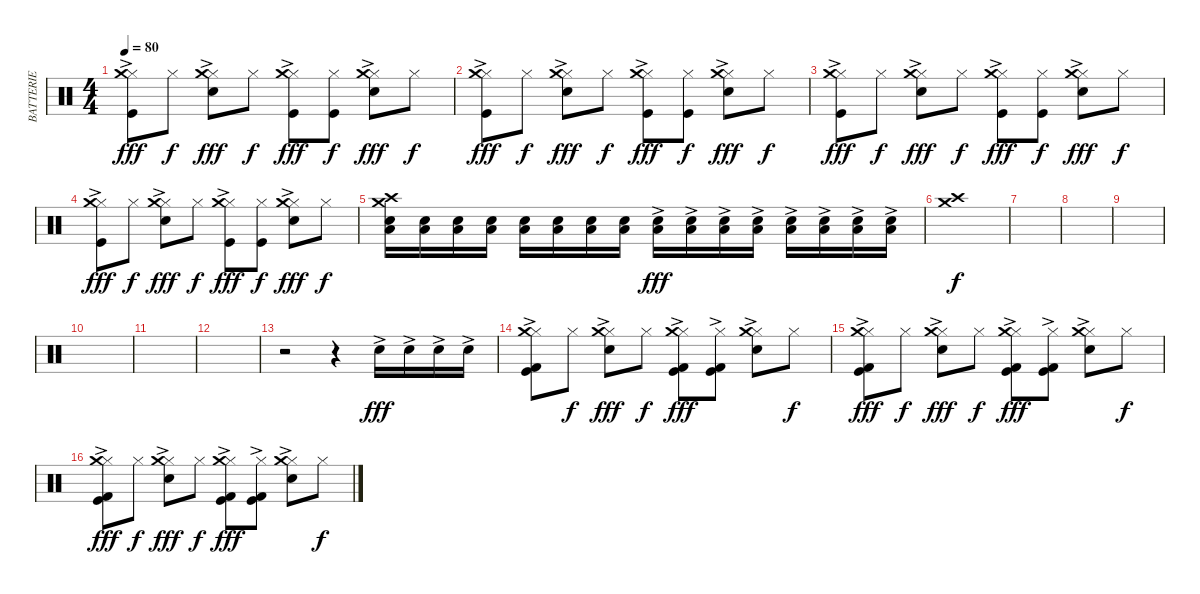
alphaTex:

\track ("BATTERIE" "BATTERIE") {instrument percussion}
\staff {score}
\articulation defaults
\ts (4 4)
\tempo 80
\clef neutral
\ks c
("Hi-Hat (closed)"{ac} "Crash medium (hit)" "Kick (hit)").8{dy fff} "Hi-Hat (closed)".8{dy f} ("Hi-Hat (closed)"{ac} "Electric Snare (hit)" "Crash medium (hit)").8{dy fff} "Hi-Hat (closed)".8{dy f} ("Hi-Hat (closed)"{ac} "Crash medium (hit)" "Kick (hit)").8{dy fff} ("Hi-Hat (closed)" "Kick (hit)").8{dy f} ("Hi-Hat (closed)"{ac} "Electric Snare (hit)" "Crash medium (hit)").8{dy fff} "Hi-Hat (closed)".8{dy f} |
("Hi-Hat (closed)"{ac} "Crash medium (hit)" "Kick (hit)").8{dy fff} "Hi-Hat (closed)".8{dy f} ("Hi-Hat (closed)"{ac} "Electric Snare (hit)" "Crash medium (hit)").8{dy fff} "Hi-Hat (closed)".8{dy f} ("Hi-Hat (closed)"{ac} "Crash medium (hit)" "Kick (hit)").8{dy fff} ("Hi-Hat (closed)" "Kick (hit)").8{dy f} ("Hi-Hat (closed)"{ac} "Electric Snare (hit)" "Crash medium (hit)").8{dy fff} "Hi-Hat (closed)".8{dy f} |
("Hi-Hat (closed)"{ac} "Crash medium (hit)" "Kick (hit)").8{dy fff} "Hi-Hat (closed)".8{dy f} ("Hi-Hat (closed)"{ac} "Electric Snare (hit)" "Crash medium (hit)").8{dy fff} "Hi-Hat (closed)".8{dy f} ("Hi-Hat (closed)"{ac} "Crash medium (hit)" "Kick (hit)").8{dy fff} ("Hi-Hat (closed)" "Kick (hit)").8{dy f} ("Hi-Hat (closed)"{ac} "Electric Snare (hit)" "Crash medium (hit)").8{dy fff} "Hi-Hat (closed)".8{dy f} |
("Hi-Hat (closed)"{ac} "Crash medium (hit)" "Kick (hit)").8{dy fff} "Hi-Hat (closed)".8{dy f} ("Hi-Hat (closed)"{ac} "Electric Snare (hit)" "Crash medium (hit)").8{dy fff} "Hi-Hat (closed)".8{dy f} ("Hi-Hat (closed)"{ac} "Crash medium (hit)" "Kick (hit)").8{dy fff} ("Hi-Hat (closed)" "Kick (hit)").8{dy f} ("Hi-Hat (closed)"{ac} "Electric Snare (hit)" "Crash medium (hit)").8{dy fff} "Hi-Hat (closed)".8{dy f} |
("Crash high (hit)" "Crash medium (hit)" "Electric Snare (hit)" "Low Floor Tom (hit)").16 ("Electric Snare (hit)" "Low Floor Tom (hit)").16 ("Electric Snare (hit)" "Low Floor Tom (hit)").16 ("Electric Snare (hit)" "Low Floor Tom (hit)").16 ("Electric Snare (hit)" "Low Floor Tom (hit)").16 ("Electric Snare (hit)" "Low Floor Tom (hit)").16 ("Electric Snare (hit)" "Low Floor Tom (hit)").16 ("Electric Snare (hit)" "Low Floor Tom (hit)").16 ("Electric Snare (hit)"{ac} "Low Floor Tom (hit)").16{dy fff} ("Electric Snare (hit)"{ac} "Low Floor Tom (hit)").16 ("Electric Snare (hit)"{ac} "Low Floor Tom (hit)").16 ("Electric Snare (hit)"{ac} "Low Floor Tom (hit)").16 ("Electric Snare (hit)"{ac} "Low Floor Tom (hit)").16 ("Electric Snare (hit)"{ac} "Low Floor Tom (hit)").16 ("Electric Snare (hit)"{ac} "Low Floor Tom (hit)").16 ("Electric Snare (hit)"{ac} "Low Floor Tom (hit)").16 |
("Crash high (hit)" "Crash medium (hit)").1{dy f} |
|
|
|
|
|
|
r.2 r.4 "Electric Snare (hit)"{ac}.16{dy fff} "Electric Snare (hit)"{ac}.16 "Electric Snare (hit)"{ac}.16 "Electric Snare (hit)"{ac}.16 |
("Hi-Hat (closed)"{ac} "Crash medium (hit)" "Kick (hit)"{ac} "Kick (hit) 2"{ac}).8 "Hi-Hat (closed)".8{dy f} ("Hi-Hat (closed)"{ac} "Electric Snare (hit)" "Crash medium (hit)").8{dy fff} "Hi-Hat (closed)".8{dy f} ("Hi-Hat (closed)"{ac} "Crash medium (hit)" "Kick (hit)"{ac} "Kick (hit) 2"{ac}).8{dy fff} ("Hi-Hat (closed)" "Kick (hit)"{ac} "Kick (hit) 2"{ac}).8 ("Hi-Hat (closed)"{ac} "Electric Snare (hit)" "Crash medium (hit)").8 "Hi-Hat (closed)".8{dy f} |
("Hi-Hat (closed)"{ac} "Crash medium (hit)" "Kick (hit)"{ac} "Kick (hit) 2"{ac}).8{dy fff} "Hi-Hat (closed)".8{dy f} ("Hi-Hat (closed)"{ac} "Electric Snare (hit)" "Crash medium (hit)").8{dy fff} "Hi-Hat (closed)".8{dy f} ("Hi-Hat (closed)"{ac} "Crash medium (hit)" "Kick (hit)"{ac} "Kick (hit) 2"{ac}).8{dy fff} ("Hi-Hat (closed)" "Kick (hit)"{ac} "Kick (hit) 2"{ac}).8 ("Hi-Hat (closed)"{ac} "Electric Snare (hit)" "Crash medium (hit)").8 "Hi-Hat (closed)".8{dy f} |
("Hi-Hat (closed)"{ac} "Crash medium (hit)" "Kick (hit)"{ac} "Kick (hit) 2"{ac}).8{dy fff} "Hi-Hat (closed)".8{dy f} ("Hi-Hat (closed)"{ac} "Electric Snare (hit)" "Crash medium (hit)").8{dy fff} "Hi-Hat (closed)".8{dy f} ("Hi-Hat (closed)"{ac} "Crash medium (hit)" "Kick (hit)"{ac} "Kick (hit) 2"{ac}).8{dy fff} ("Hi-Hat (closed)" "Kick (hit)"{ac} "Kick (hit) 2"{ac}).8 ("Hi-Hat (closed)"{ac} "Electric Snare (hit)" "Crash medium (hit)").8 "Hi-Hat (closed)".8{dy f}
